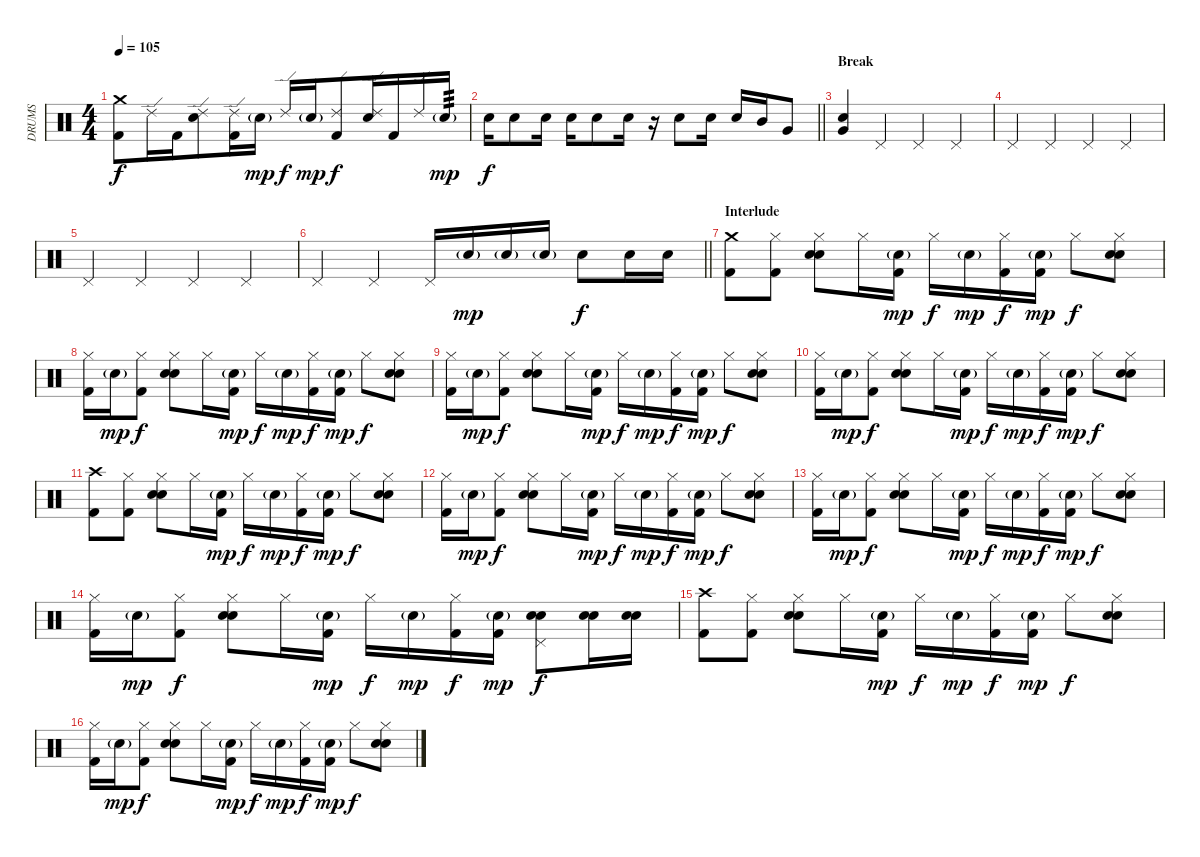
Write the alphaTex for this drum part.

\track ("DRUMS" "DRUMS") {instrument percussion bank 148}
\staff {score}
\articulation defaults
\ts (4 4)
\tempo 105
\clef neutral
\ks c
("Crash medium (hit)" "Kick (hit) 2").8{dy f beam merge} "Ride (edge) 2".16 "Kick (hit) 2".16{beam merge} ("Ride (edge) 2" "Electric Snare (hit)").8 ("Ride (edge) 2" "Kick (hit) 2").16{beam merge} "Electric Snare (hit)"{g}.16{dy mp} "Ride (edge) 2".16{dy f} "Electric Snare (hit)"{g}.16{dy mp beam merge} ("Ride (edge) 2" "Kick (hit) 2").8{dy f beam merge} ("Ride (edge) 2" "Electric Snare (hit)").16 "Kick (hit) 2".16 "Ride (edge) 2".16 "Electric Snare (hit)"{g}.16{tp 3 dy mp} |
\barLineRight lightlight "Electric Snare (hit)".16{dy f} "Electric Snare (hit)".8 "Electric Snare (hit)".16 "Electric Snare (hit)".16 "Electric Snare (hit)".8 "Electric Snare (hit)".16
r.16 "Electric Snare (hit)".8 "Electric Snare (hit)".16 "Electric Snare (hit)".16 "Mid Tom (hit)".16{beam merge} "Very Low Tom (hit)".8 |
\section ("" "Break")
("Electric Snare (hit)" "Very Low Tom (hit)").4 "Pedal Hi-Hat (hit)".4 "Pedal Hi-Hat (hit)".4 "Pedal Hi-Hat (hit)".4 |
"Pedal Hi-Hat (hit)".4 "Pedal Hi-Hat (hit)".4 "Pedal Hi-Hat (hit)".4 "Pedal Hi-Hat (hit)".4 |
"Pedal Hi-Hat (hit)".4 "Pedal Hi-Hat (hit)".4 "Pedal Hi-Hat (hit)".4 "Pedal Hi-Hat (hit)".4 |
\barLineRight lightlight "Pedal Hi-Hat (hit)".4 "Pedal Hi-Hat (hit)".4 "Pedal Hi-Hat (hit)".16 "Electric Snare (hit)"{g}.16{dy mp} "Electric Snare (hit)"{g}.16 "Electric Snare (hit)"{g}.16 "Electric Snare (hit)".8{dy f} "Electric Snare (hit)".16 "Electric Snare (hit)".16
|
\section ("" "Interlude")
("Crash medium (hit)" "Kick (hit) 2").8 ("Hi-Hat (closed)" "Kick (hit) 2").8 ("Hi-Hat (closed)" "Electric Snare (hit)" "Hand Clap (hit)").8{beam merge} "Hi-Hat (closed)".16 ("Electric Snare (hit)"{g} "Kick (hit) 2").16{dy mp} "Hi-Hat (closed)".16{dy f} "Electric Snare (hit)"{g}.16{dy mp} ("Hi-Hat (closed)" "Kick (hit) 2").16{dy f} ("Electric Snare (hit)"{g} "Kick (hit) 2").16{dy mp} "Hi-Hat (closed)".8{dy f} ("Hi-Hat (closed)" "Electric Snare (hit)" "Hand Clap (hit)").8 |
("Hi-Hat (closed)" "Kick (hit) 2").16 "Electric Snare (hit)"{g}.16{dy mp} ("Hi-Hat (closed)" "Kick (hit) 2").8{dy f} ("Hi-Hat (closed)" "Electric Snare (hit)" "Hand Clap (hit)").8{beam merge} "Hi-Hat (closed)".16 ("Electric Snare (hit)"{g} "Kick (hit) 2").16{dy mp} "Hi-Hat (closed)".16{dy f} "Electric Snare (hit)"{g}.16{dy mp} ("Hi-Hat (closed)" "Kick (hit) 2").16{dy f} ("Electric Snare (hit)"{g} "Kick (hit) 2").16{dy mp} "Hi-Hat (closed)".8{dy f} ("Hi-Hat (closed)" "Electric Snare (hit)" "Hand Clap (hit)").8 |
("Hi-Hat (closed)" "Kick (hit) 2").16 "Electric Snare (hit)"{g}.16{dy mp} ("Hi-Hat (closed)" "Kick (hit) 2").8{dy f} ("Hi-Hat (closed)" "Electric Snare (hit)" "Hand Clap (hit)").8{beam merge} "Hi-Hat (closed)".16 ("Electric Snare (hit)"{g} "Kick (hit) 2").16{dy mp} "Hi-Hat (closed)".16{dy f} "Electric Snare (hit)"{g}.16{dy mp} ("Hi-Hat (closed)" "Kick (hit) 2").16{dy f} ("Electric Snare (hit)"{g} "Kick (hit) 2").16{dy mp} "Hi-Hat (closed)".8{dy f} ("Hi-Hat (closed)" "Electric Snare (hit)" "Hand Clap (hit)").8 |
("Hi-Hat (closed)" "Kick (hit) 2").16 "Electric Snare (hit)"{g}.16{dy mp} ("Hi-Hat (closed)" "Kick (hit) 2").8{dy f} ("Hi-Hat (closed)" "Electric Snare (hit)" "Hand Clap (hit)").8{beam merge} "Hi-Hat (closed)".16 ("Electric Snare (hit)"{g} "Kick (hit) 2").16{dy mp} "Hi-Hat (closed)".16{dy f} "Electric Snare (hit)"{g}.16{dy mp} ("Hi-Hat (closed)" "Kick (hit) 2").16{dy f} ("Electric Snare (hit)"{g} "Kick (hit) 2").16{dy mp} "Hi-Hat (closed)".8{dy f} ("Hi-Hat (closed)" "Electric Snare (hit)" "Hand Clap (hit)").8 |
("Crash high (hit)" "Kick (hit) 2").8 ("Hi-Hat (closed)" "Kick (hit) 2").8 ("Hi-Hat (closed)" "Electric Snare (hit)" "Hand Clap (hit)").8{beam merge} "Hi-Hat (closed)".16 ("Electric Snare (hit)"{g} "Kick (hit) 2").16{dy mp} "Hi-Hat (closed)".16{dy f} "Electric Snare (hit)"{g}.16{dy mp} ("Hi-Hat (closed)" "Kick (hit) 2").16{dy f} ("Electric Snare (hit)"{g} "Kick (hit) 2").16{dy mp} "Hi-Hat (closed)".8{dy f} ("Hi-Hat (closed)" "Electric Snare (hit)" "Hand Clap (hit)").8 |
("Hi-Hat (closed)" "Kick (hit) 2").16 "Electric Snare (hit)"{g}.16{dy mp} ("Hi-Hat (closed)" "Kick (hit) 2").8{dy f} ("Hi-Hat (closed)" "Electric Snare (hit)" "Hand Clap (hit)").8{beam merge} "Hi-Hat (closed)".16 ("Electric Snare (hit)"{g} "Kick (hit) 2").16{dy mp} "Hi-Hat (closed)".16{dy f} "Electric Snare (hit)"{g}.16{dy mp} ("Hi-Hat (closed)" "Kick (hit) 2").16{dy f} ("Electric Snare (hit)"{g} "Kick (hit) 2").16{dy mp} "Hi-Hat (closed)".8{dy f} ("Hi-Hat (closed)" "Electric Snare (hit)" "Hand Clap (hit)").8 |
("Hi-Hat (closed)" "Kick (hit) 2").16 "Electric Snare (hit)"{g}.16{dy mp} ("Hi-Hat (closed)" "Kick (hit) 2").8{dy f} ("Hi-Hat (closed)" "Electric Snare (hit)" "Hand Clap (hit)").8{beam merge} "Hi-Hat (closed)".16 ("Electric Snare (hit)"{g} "Kick (hit) 2").16{dy mp} "Hi-Hat (closed)".16{dy f} "Electric Snare (hit)"{g}.16{dy mp} ("Hi-Hat (closed)" "Kick (hit) 2").16{dy f} ("Electric Snare (hit)"{g} "Kick (hit) 2").16{dy mp} "Hi-Hat (closed)".8{dy f} ("Hi-Hat (closed)" "Electric Snare (hit)" "Hand Clap (hit)").8 |
("Hi-Hat (closed)" "Kick (hit) 2").16 "Electric Snare (hit)"{g}.16{dy mp} ("Hi-Hat (closed)" "Kick (hit) 2").8{dy f} ("Hi-Hat (closed)" "Electric Snare (hit)" "Hand Clap (hit)").8{beam merge} "Hi-Hat (closed)".16 ("Electric Snare (hit)"{g} "Kick (hit) 2").16{dy mp} "Hi-Hat (closed)".16{dy f} "Electric Snare (hit)"{g}.16{dy mp} ("Hi-Hat (closed)" "Kick (hit) 2").16{dy f} ("Electric Snare (hit)"{g} "Kick (hit) 2").16{dy mp} ("Pedal Hi-Hat (hit)" "Electric Snare (hit)" "Hand Clap (hit)").8{dy f} ("Electric Snare (hit)" "Hand Clap (hit)").16 ("Electric Snare (hit)" "Hand Clap (hit)").16 |
("Crash high (hit)" "Kick (hit) 2").8 ("Hi-Hat (closed)" "Kick (hit) 2").8 ("Hi-Hat (closed)" "Electric Snare (hit)" "Hand Clap (hit)").8{beam merge} "Hi-Hat (closed)".16 ("Electric Snare (hit)"{g} "Kick (hit) 2").16{dy mp} "Hi-Hat (closed)".16{dy f} "Electric Snare (hit)"{g}.16{dy mp} ("Hi-Hat (closed)" "Kick (hit) 2").16{dy f} ("Electric Snare (hit)"{g} "Kick (hit) 2").16{dy mp} "Hi-Hat (closed)".8{dy f} ("Hi-Hat (closed)" "Electric Snare (hit)" "Hand Clap (hit)").8 |
("Hi-Hat (closed)" "Kick (hit) 2").16 "Electric Snare (hit)"{g}.16{dy mp} ("Hi-Hat (closed)" "Kick (hit) 2").8{dy f} ("Hi-Hat (closed)" "Electric Snare (hit)" "Hand Clap (hit)").8{beam merge} "Hi-Hat (closed)".16 ("Electric Snare (hit)"{g} "Kick (hit) 2").16{dy mp} "Hi-Hat (closed)".16{dy f} "Electric Snare (hit)"{g}.16{dy mp} ("Hi-Hat (closed)" "Kick (hit) 2").16{dy f} ("Electric Snare (hit)"{g} "Kick (hit) 2").16{dy mp} "Hi-Hat (closed)".8{dy f} ("Hi-Hat (closed)" "Electric Snare (hit)" "Hand Clap (hit)").8
